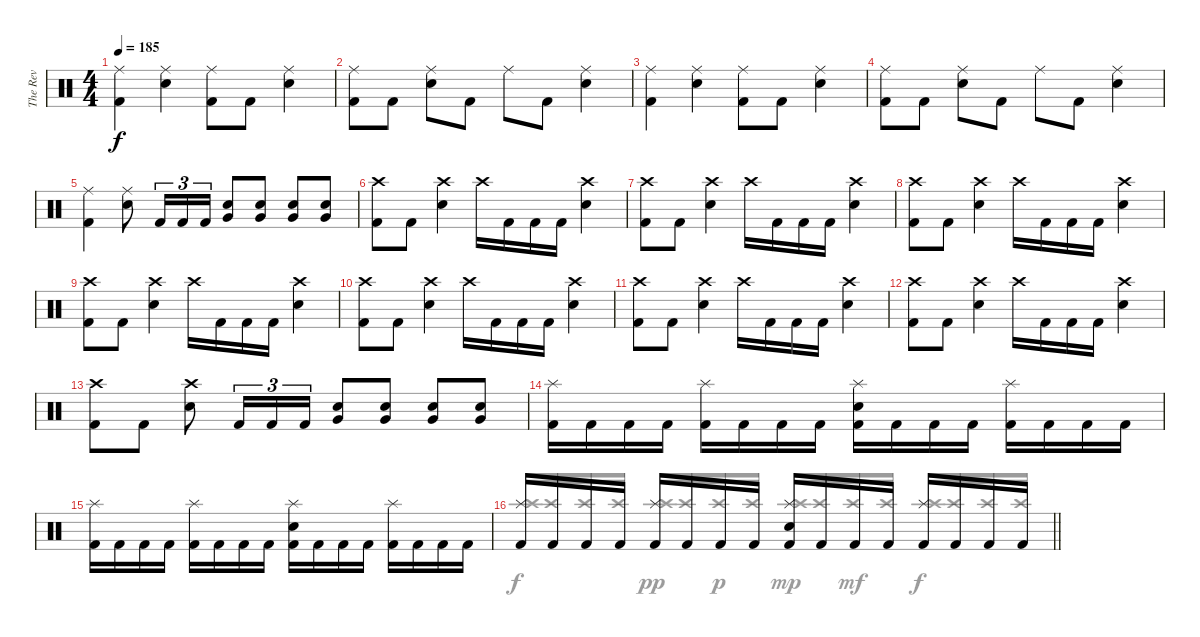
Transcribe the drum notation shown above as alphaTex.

\track ("The Rev" "The Rev") {instrument percussion}
\staff {score}
\articulation defaults
\voice
\ts (4 4)
\tempo 185
\clef neutral
\ks c
("Ride (middle)" "Kick (hit) 2").4{dy f} ("Ride (middle)" "Electric Snare (hit)").4 ("Ride (middle)" "Kick (hit) 2").8 "Kick (hit) 2".8 ("Ride (middle)" "Electric Snare (hit)").4 |
("Ride (middle)" "Kick (hit) 2").8 "Kick (hit) 2".8 ("Ride (middle)" "Electric Snare (hit)").8 "Kick (hit) 2".8 "Ride (middle)".8 "Kick (hit) 2".8 ("Ride (middle)" "Electric Snare (hit)").4 |
("Ride (middle)" "Kick (hit) 2").4 ("Ride (middle)" "Electric Snare (hit)").4 ("Ride (middle)" "Kick (hit) 2").8 "Kick (hit) 2".8 ("Ride (middle)" "Electric Snare (hit)").4 |
("Ride (middle)" "Kick (hit) 2").8 "Kick (hit) 2".8 ("Ride (middle)" "Electric Snare (hit)").8 "Kick (hit) 2".8 "Ride (middle)".8 "Kick (hit) 2".8 ("Ride (middle)" "Electric Snare (hit)").4 |
("Ride (middle)" "Kick (hit) 2").4 ("Ride (middle)" "Electric Snare (hit)").8 "Kick (hit) 2".16{tu (3 2)} "Kick (hit) 2".16{tu (3 2)} "Kick (hit) 2".16{tu (3 2)} ("Very Low Tom (hit)" "Electric Snare (hit)").8 ("Very Low Tom (hit)" "Electric Snare (hit)").8 ("Very Low Tom (hit)" "Electric Snare (hit)").8 ("Very Low Tom (hit)" "Electric Snare (hit)").8 |
("Crash high (hit)" "Kick (hit) 2").8 "Kick (hit) 2".8 ("Crash high (hit)" "Electric Snare (hit)").4 "Crash high (hit)".16 "Kick (hit) 2".16 "Kick (hit) 2".16 "Kick (hit) 2".16 ("Crash high (hit)" "Electric Snare (hit)").4 |
("Crash high (hit)" "Kick (hit) 2").8 "Kick (hit) 2".8 ("Crash high (hit)" "Electric Snare (hit)").4 "Crash high (hit)".16 "Kick (hit) 2".16 "Kick (hit) 2".16 "Kick (hit) 2".16 ("Crash high (hit)" "Electric Snare (hit)").4 |
("Crash high (hit)" "Kick (hit) 2").8 "Kick (hit) 2".8 ("Crash high (hit)" "Electric Snare (hit)").4 "Crash high (hit)".16 "Kick (hit) 2".16 "Kick (hit) 2".16 "Kick (hit) 2".16 ("Crash high (hit)" "Electric Snare (hit)").4 |
("Crash high (hit)" "Kick (hit) 2").8 "Kick (hit) 2".8 ("Crash high (hit)" "Electric Snare (hit)").4 "Crash high (hit)".16 "Kick (hit) 2".16 "Kick (hit) 2".16 "Kick (hit) 2".16 ("Crash high (hit)" "Electric Snare (hit)").4 |
("Crash high (hit)" "Kick (hit) 2").8 "Kick (hit) 2".8 ("Crash high (hit)" "Electric Snare (hit)").4 "Crash high (hit)".16 "Kick (hit) 2".16 "Kick (hit) 2".16 "Kick (hit) 2".16 ("Crash high (hit)" "Electric Snare (hit)").4 |
("Crash high (hit)" "Kick (hit) 2").8 "Kick (hit) 2".8 ("Crash high (hit)" "Electric Snare (hit)").4 "Crash high (hit)".16 "Kick (hit) 2".16 "Kick (hit) 2".16 "Kick (hit) 2".16 ("Crash high (hit)" "Electric Snare (hit)").4 |
("Crash high (hit)" "Kick (hit) 2").8 "Kick (hit) 2".8 ("Crash high (hit)" "Electric Snare (hit)").4 "Crash high (hit)".16 "Kick (hit) 2".16 "Kick (hit) 2".16 "Kick (hit) 2".16 ("Crash high (hit)" "Electric Snare (hit)").4 |
("Crash high (hit)" "Kick (hit) 2").8 "Kick (hit) 2".8 ("Crash high (hit)" "Electric Snare (hit)").8 "Kick (hit) 2".16{tu (3 2)} "Kick (hit) 2".16{tu (3 2)} "Kick (hit) 2".16{tu (3 2)} ("Very Low Tom (hit)" "Electric Snare (hit)").8 ("Very Low Tom (hit)" "Electric Snare (hit)").8 ("Very Low Tom (hit)" "Electric Snare (hit)").8 ("Very Low Tom (hit)" "Electric Snare (hit)").8 |
("Splash (hit)" "Kick (hit) 2").16 "Kick (hit) 2".16 "Kick (hit) 2".16 "Kick (hit) 2".16 ("Splash (hit)" "Kick (hit) 2").16 "Kick (hit) 2".16 "Kick (hit) 2".16 "Kick (hit) 2".16 ("Splash (hit)" "Electric Snare (hit)" "Kick (hit) 2").16 "Kick (hit) 2".16 "Kick (hit) 2".16 "Kick (hit) 2".16 ("Splash (hit)" "Kick (hit) 2").16 "Kick (hit) 2".16 "Kick (hit) 2".16 "Kick (hit) 2".16 |
("Splash (hit)" "Kick (hit) 2").16 "Kick (hit) 2".16 "Kick (hit) 2".16 "Kick (hit) 2".16 ("Splash (hit)" "Kick (hit) 2").16 "Kick (hit) 2".16 "Kick (hit) 2".16 "Kick (hit) 2".16 ("Splash (hit)" "Electric Snare (hit)" "Kick (hit) 2").16 "Kick (hit) 2".16 "Kick (hit) 2".16 "Kick (hit) 2".16 ("Splash (hit)" "Kick (hit) 2").16 "Kick (hit) 2".16 "Kick (hit) 2".16 "Kick (hit) 2".16 |
\barLineRight lightlight
("Splash (hit)" "Kick (hit) 2").16 "Kick (hit) 2".16 "Kick (hit) 2".16 "Kick (hit) 2".16 ("Splash (hit)" "Kick (hit) 2").16 "Kick (hit) 2".16 "Kick (hit) 2".16 "Kick (hit) 2".16 ("Splash (hit)" "Electric Snare (hit)" "Kick (hit) 2").16 "Kick (hit) 2".16 "Kick (hit) 2".16 "Kick (hit) 2".16 ("Splash (hit)" "Kick (hit) 2").16 "Kick (hit) 2".16 "Kick (hit) 2".16 "Kick (hit) 2".16
\voice
\clef neutral
\ottava regular
\simile none
\ks c
|
|
|
|
|
|
|
|
|
|
|
|
|
|
|
\barLineRight lightlight "Crash high (hit)".16{beam Up} "Crash high (hit)".16{beam Up} "Crash high (hit)".16{beam Up} "Crash high (hit)".16{beam Up} "Crash high (hit)".16{dy pp beam Up} "Crash high (hit)".16{beam Up} "Crash high (hit)".16{dy p beam Up} "Crash high (hit)".16{beam Up} "Crash high (hit)".16{dy mp beam Up} "Crash high (hit)".16{beam Up} "Crash high (hit)".16{dy mf beam Up} "Crash high (hit)".16{beam Up} "Crash high (hit)".16{dy f beam Up} "Crash high (hit)".16{beam Up} "Crash high (hit)".16{beam Up} "Crash high (hit)".16{beam Up}
